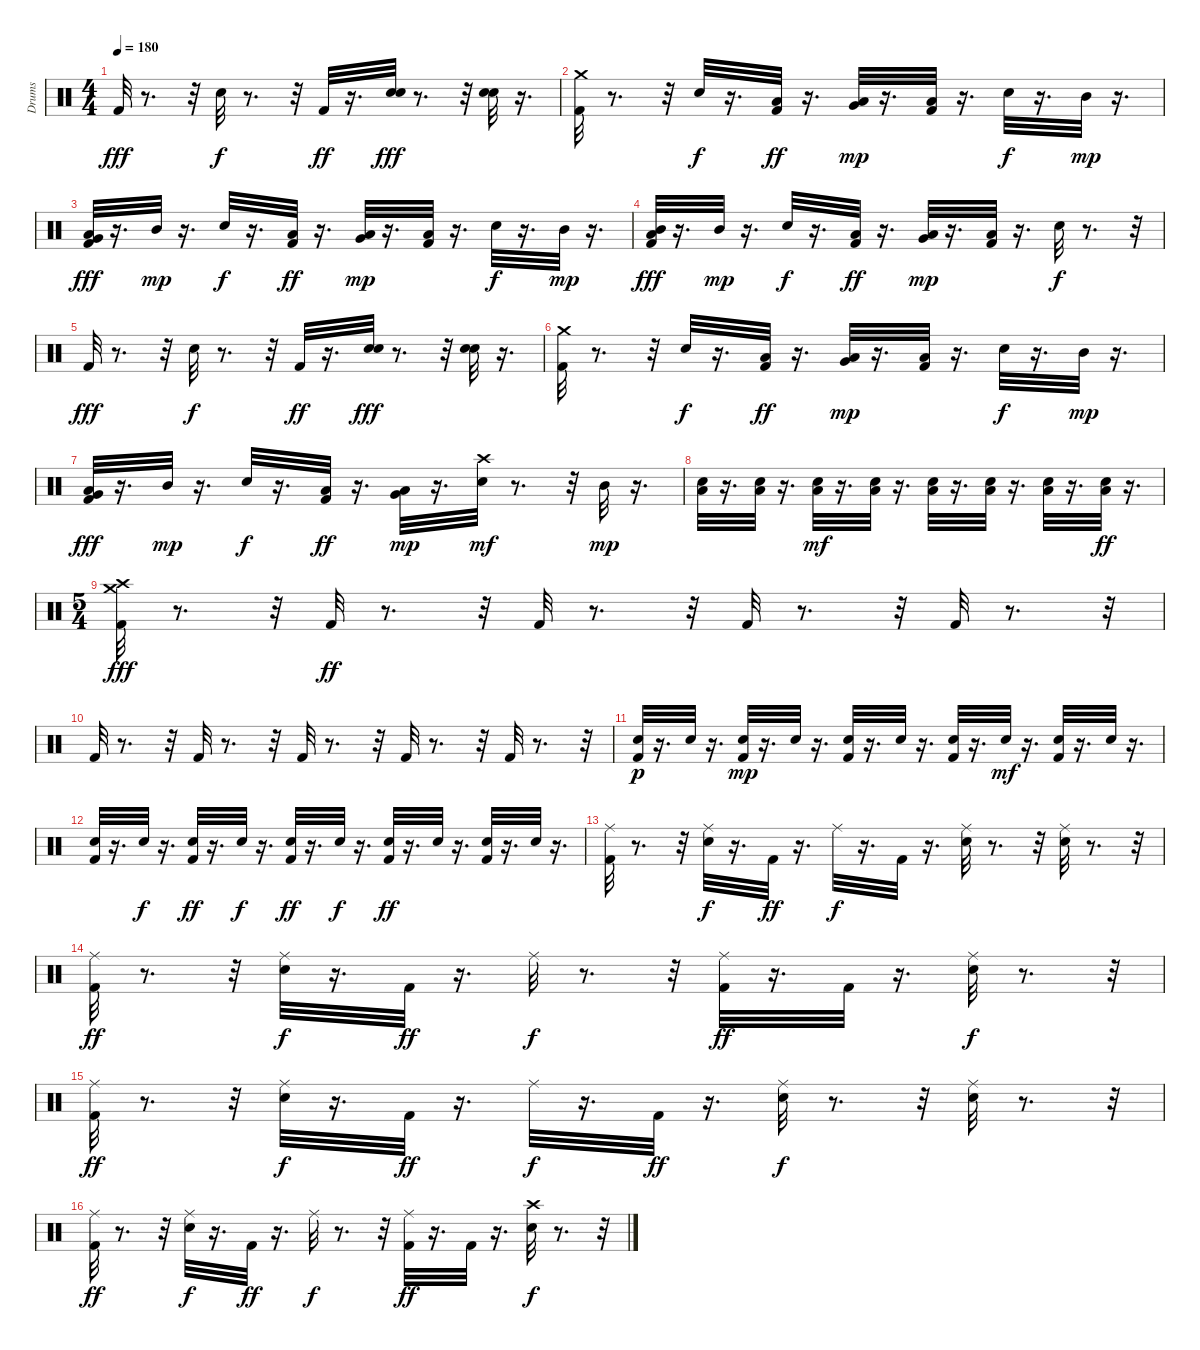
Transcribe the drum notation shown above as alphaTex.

\track ("Drums" "Drums") {instrument percussion}
\staff {score}
\articulation defaults
\ts (4 4)
\tempo 180
\clef neutral
\ks c "Kick (hit) 2".32{dy fff}
r.8{d} r.32 "Snare (hit) 2".32{dy f} r.8{d} r.32 "Kick (hit) 2".32{dy ff} r.16{d} ("Electric Snare (hit)" "Snare (hit) 2").32{dy fff} r.8{d} r.32 ("Electric Snare (hit)" "Snare (hit) 2").32 r.16{d} |
("Kick (hit) 2" "Crash medium (hit)").32 r.8{d} r.32 "Snare (hit) 2".32{dy f} r.16{d} ("Low Tom (hit)" "Kick (hit) 2").32{dy ff} r.16{d} ("Very Low Tom (hit)" "Low Floor Tom (hit)").32{dy mp} r.16{d} ("Low Tom (hit)" "Kick (hit) 2").32 r.16{d} "Snare (hit) 2".32{dy f} r.16{d} "Mid Tom (hit)".32{dy mp} r.16{d} |
("Low Tom (hit)" "Very Low Tom (hit)" "Kick (hit) 2").32{dy fff} r.16{d} "Mid Tom (hit)".32{dy mp} r.16{d} "Snare (hit) 2".32{dy f} r.16{d} ("Low Tom (hit)" "Kick (hit) 2").32{dy ff} r.16{d} ("Very Low Tom (hit)" "Low Floor Tom (hit)").32{dy mp} r.16{d} ("Low Tom (hit)" "Kick (hit) 2").32 r.16{d} "Snare (hit) 2".32{dy f} r.16{d} "Mid Tom (hit)".32{dy mp} r.16{d} |
("Mid Tom (hit)" "Low Tom (hit)" "Kick (hit) 2").32{dy fff} r.16{d} "Mid Tom (hit)".32{dy mp} r.16{d} "Snare (hit) 2".32{dy f} r.16{d} ("Low Tom (hit)" "Kick (hit) 2").32{dy ff} r.16{d} ("Very Low Tom (hit)" "Low Floor Tom (hit)").32{dy mp} r.16{d} ("Low Tom (hit)" "Kick (hit) 2").32 r.16{d} "Snare (hit) 2".32{dy f} r.8{d} r.32 |
"Kick (hit) 2".32{dy fff} r.8{d} r.32 "Snare (hit) 2".32{dy f} r.8{d} r.32 "Kick (hit) 2".32{dy ff} r.16{d} ("Electric Snare (hit)" "Snare (hit) 2").32{dy fff} r.8{d} r.32 ("Electric Snare (hit)" "Snare (hit) 2").32 r.16{d} |
("Kick (hit) 2" "Crash medium (hit)").32 r.8{d} r.32 "Snare (hit) 2".32{dy f} r.16{d} ("Low Tom (hit)" "Kick (hit) 2").32{dy ff} r.16{d} ("Very Low Tom (hit)" "Low Floor Tom (hit)").32{dy mp} r.16{d} ("Low Tom (hit)" "Kick (hit) 2").32 r.16{d} "Snare (hit) 2".32{dy f} r.16{d} "Mid Tom (hit)".32{dy mp} r.16{d} |
("Low Tom (hit)" "Very Low Tom (hit)" "Kick (hit) 2").32{dy fff} r.16{d} "Mid Tom (hit)".32{dy mp} r.16{d} "Snare (hit) 2".32{dy f} r.16{d} ("Low Tom (hit)" "Kick (hit) 2").32{dy ff} r.16{d} ("Very Low Tom (hit)" "Low Floor Tom (hit)").32{dy mp} r.16{d} ("Crash high (hit)" "Snare (hit) 2").32{dy mf} r.8{d} r.32 "Mid Tom (hit)".32{dy mp} r.16{d} |
("Low Floor Tom (hit)" "Snare (hit) 2").32 r.16{d} ("Low Floor Tom (hit)" "Snare (hit) 2").32 r.16{d} ("Low Floor Tom (hit)" "Snare (hit) 2").32{dy mf} r.16{d} ("Low Floor Tom (hit)" "Snare (hit) 2").32 r.16{d} ("Low Floor Tom (hit)" "Snare (hit) 2").32 r.16{d} ("Low Floor Tom (hit)" "Snare (hit) 2").32 r.16{d} ("Low Floor Tom (hit)" "Snare (hit) 2").32 r.16{d} ("Low Floor Tom (hit)" "Snare (hit) 2").32{dy ff} r.16{d} |
\ts (5 4)
("Kick (hit) 2" "Crash medium (hit)" "Crash high (hit)").32{dy fff} r.8{d} r.32 "Kick (hit) 2".32{dy ff} r.8{d} r.32 "Kick (hit) 2".32 r.8{d} r.32 "Kick (hit) 2".32 r.8{d} r.32 "Kick (hit) 2".32 r.8{d} r.32 |
"Kick (hit) 2".32 r.8{d} r.32 "Kick (hit) 2".32 r.8{d} r.32 "Kick (hit) 2".32 r.8{d} r.32 "Kick (hit) 2".32 r.8{d} r.32 "Kick (hit) 2".32 r.8{d} r.32 |
("Kick (hit) 2" "Snare (hit) 2").32{dy p} r.16{d} "Snare (hit) 2".32 r.16{d} ("Kick (hit) 2" "Snare (hit) 2").32{dy mp} r.16{d} "Snare (hit) 2".32 r.16{d} ("Kick (hit) 2" "Snare (hit) 2").32 r.16{d} "Snare (hit) 2".32 r.16{d} ("Kick (hit) 2" "Snare (hit) 2").32 r.16{d} "Snare (hit) 2".32{dy mf} r.16{d} ("Kick (hit) 2" "Snare (hit) 2").32 r.16{d} "Snare (hit) 2".32 r.16{d} |
("Kick (hit) 2" "Snare (hit) 2").32 r.16{d} "Snare (hit) 2".32{dy f} r.16{d} ("Kick (hit) 2" "Snare (hit) 2").32{dy ff} r.16{d} "Snare (hit) 2".32{dy f} r.16{d} ("Kick (hit) 2" "Snare (hit) 2").32{dy ff} r.16{d} "Snare (hit) 2".32{dy f} r.16{d} ("Kick (hit) 2" "Snare (hit) 2").32{dy ff} r.16{d} "Snare (hit) 2".32 r.16{d} ("Kick (hit) 2" "Snare (hit) 2").32 r.16{d} "Snare (hit) 2".32 r.16{d} |
("Ride (middle)" "Kick (hit) 2").32 r.8{d} r.32 ("Ride (middle)" "Snare (hit) 2").32{dy f} r.16{d} "Kick (hit) 2".32{dy ff} r.16{d} "Ride (middle)".32{dy f} r.16{d} "Kick (hit) 2".32 r.16{d} ("Ride (middle)" "Snare (hit) 2").32 r.8{d} r.32 ("Ride (middle)" "Snare (hit) 2").32 r.8{d} r.32 |
("Ride (middle)" "Kick (hit) 2").32{dy ff} r.8{d} r.32 ("Ride (middle)" "Snare (hit) 2").32{dy f} r.16{d} "Kick (hit) 2".32{dy ff} r.16{d} "Ride (middle)".32{dy f} r.8{d} r.32 ("Kick (hit) 2" "Ride (middle)").32{dy ff} r.16{d} "Kick (hit) 2".32 r.16{d} ("Ride (middle)" "Snare (hit) 2").32{dy f} r.8{d} r.32 |
("Ride (middle)" "Kick (hit) 2").32{dy ff} r.8{d} r.32 ("Ride (middle)" "Snare (hit) 2").32{dy f} r.16{d} "Kick (hit) 2".32{dy ff} r.16{d} "Ride (middle)".32{dy f} r.16{d} "Kick (hit) 2".32{dy ff} r.16{d} ("Ride (middle)" "Snare (hit) 2").32{dy f} r.8{d} r.32 ("Ride (middle)" "Snare (hit) 2").32 r.8{d} r.32 |
("Ride (middle)" "Kick (hit) 2").32{dy ff} r.8{d} r.32 ("Ride (middle)" "Snare (hit) 2").32{dy f} r.16{d} "Kick (hit) 2".32{dy ff} r.16{d} "Ride (middle)".32{dy f} r.8{d} r.32 ("Kick (hit) 2" "Ride (middle)").32{dy ff} r.16{d} "Kick (hit) 2".32 r.16{d} ("Crash high (hit)" "Snare (hit) 2").32{dy f} r.8{d} r.32
